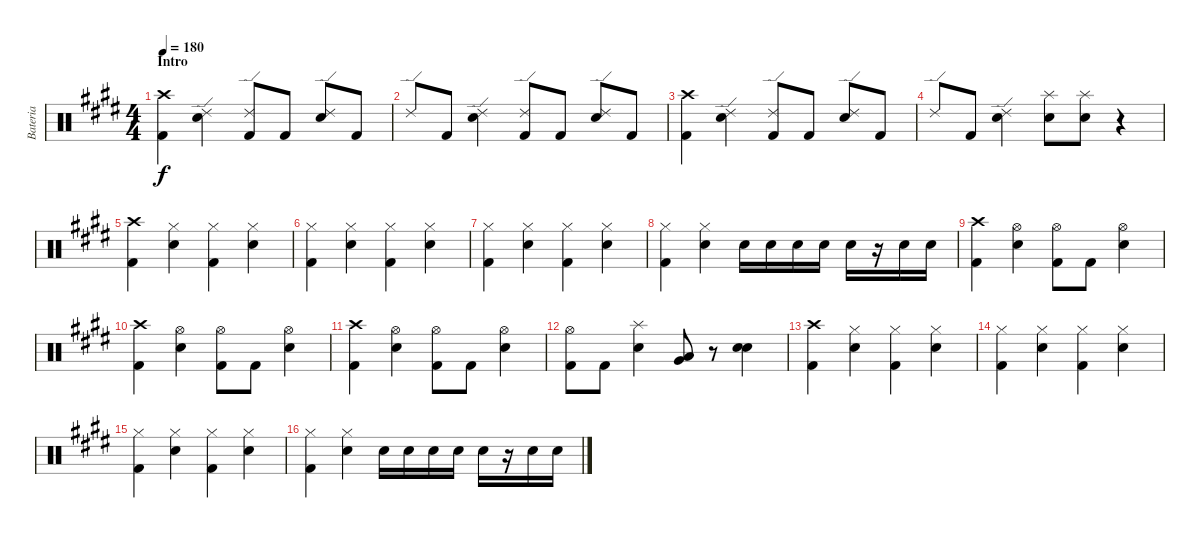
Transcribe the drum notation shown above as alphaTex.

\track ("Bateria" "Bateria") {instrument percussion}
\staff {score}
\articulation defaults
\ts (4 4)
\section ("" "Intro")
\tempo 180
\clef neutral
\ks e
("Crash high (hit)" "Kick (hit) 2").4{dy f} ("Ride (edge) 2" "Electric Snare (hit)").4 ("Ride (edge) 2" "Kick (hit) 2").8 "Kick (hit) 2".8 ("Ride (edge) 2" "Electric Snare (hit)").8 "Kick (hit) 2".8 |
"Ride (edge) 2".8 "Kick (hit) 2".8 ("Ride (edge) 2" "Electric Snare (hit)").4 ("Ride (edge) 2" "Kick (hit) 2").8 "Kick (hit) 2".8 ("Ride (edge) 2" "Electric Snare (hit)").8 "Kick (hit) 2".8 |
("Crash high (hit)" "Kick (hit) 2").4 ("Ride (edge) 2" "Electric Snare (hit)").4 ("Ride (edge) 2" "Kick (hit) 2").8 "Kick (hit) 2".8 ("Ride (edge) 2" "Electric Snare (hit)").8 "Kick (hit) 2".8 |
"Ride (edge) 2".8 "Kick (hit) 2".8 ("Ride (edge) 2" "Electric Snare (hit)").4 ("Splash (hit)" "Electric Snare (hit)").8 ("Splash (hit)" "Electric Snare (hit)").8 r.4 |
("Crash high (hit)" "Kick (hit) 2").4 ("Hi-Hat (closed)" "Electric Snare (hit)").4 ("Hi-Hat (closed)" "Kick (hit) 2").4 ("Hi-Hat (closed)" "Electric Snare (hit)").4 |
("Hi-Hat (closed)" "Kick (hit) 2").4 ("Hi-Hat (closed)" "Electric Snare (hit)").4 ("Hi-Hat (closed)" "Kick (hit) 2").4 ("Hi-Hat (closed)" "Electric Snare (hit)").4 |
("Hi-Hat (closed)" "Kick (hit) 2").4 ("Hi-Hat (closed)" "Electric Snare (hit)").4 ("Hi-Hat (closed)" "Kick (hit) 2").4 ("Hi-Hat (closed)" "Electric Snare (hit)").4 |
("Hi-Hat (closed)" "Kick (hit) 2").4 ("Hi-Hat (closed)" "Electric Snare (hit)").4 "Electric Snare (hit)".16 "Electric Snare (hit)".16 "Electric Snare (hit)".16 "Electric Snare (hit)".16 "Electric Snare (hit)".16 r.16 "Electric Snare (hit)".16 "Electric Snare (hit)".16 |
("Crash high (hit)" "Kick (hit) 2").4 ("Hi-Hat (open)" "Electric Snare (hit)").4 ("Hi-Hat (open)" "Kick (hit) 2").8 "Kick (hit) 2".8 ("Hi-Hat (open)" "Electric Snare (hit)").4 |
("Crash high (hit)" "Kick (hit) 2").4 ("Hi-Hat (open)" "Electric Snare (hit)").4 ("Hi-Hat (open)" "Kick (hit) 2").8 "Kick (hit) 2".8 ("Hi-Hat (open)" "Electric Snare (hit)").4 |
("Crash high (hit)" "Kick (hit) 2").4 ("Hi-Hat (open)" "Electric Snare (hit)").4 ("Hi-Hat (open)" "Kick (hit) 2").8 "Kick (hit) 2".8 ("Hi-Hat (open)" "Electric Snare (hit)").4 |
("Hi-Hat (open)" "Kick (hit) 2").8 "Kick (hit) 2".8 ("Splash (hit)" "Electric Snare (hit)").4 ("Low Tom (hit)" "Very Low Tom (hit)").8 r.8 ("Electric Snare (hit)" "Electric Snare (hit)").4 |
("Crash high (hit)" "Kick (hit) 2").4 ("Hi-Hat (closed)" "Electric Snare (hit)").4 ("Hi-Hat (closed)" "Kick (hit) 2").4 ("Hi-Hat (closed)" "Electric Snare (hit)").4 |
("Hi-Hat (closed)" "Kick (hit) 2").4 ("Hi-Hat (closed)" "Electric Snare (hit)").4 ("Hi-Hat (closed)" "Kick (hit) 2").4 ("Hi-Hat (closed)" "Electric Snare (hit)").4 |
("Hi-Hat (closed)" "Kick (hit) 2").4 ("Hi-Hat (closed)" "Electric Snare (hit)").4 ("Hi-Hat (closed)" "Kick (hit) 2").4 ("Hi-Hat (closed)" "Electric Snare (hit)").4 |
("Hi-Hat (closed)" "Kick (hit) 2").4 ("Hi-Hat (closed)" "Electric Snare (hit)").4 "Electric Snare (hit)".16 "Electric Snare (hit)".16 "Electric Snare (hit)".16 "Electric Snare (hit)".16 "Electric Snare (hit)".16 r.16 "Electric Snare (hit)".16 "Electric Snare (hit)".16
